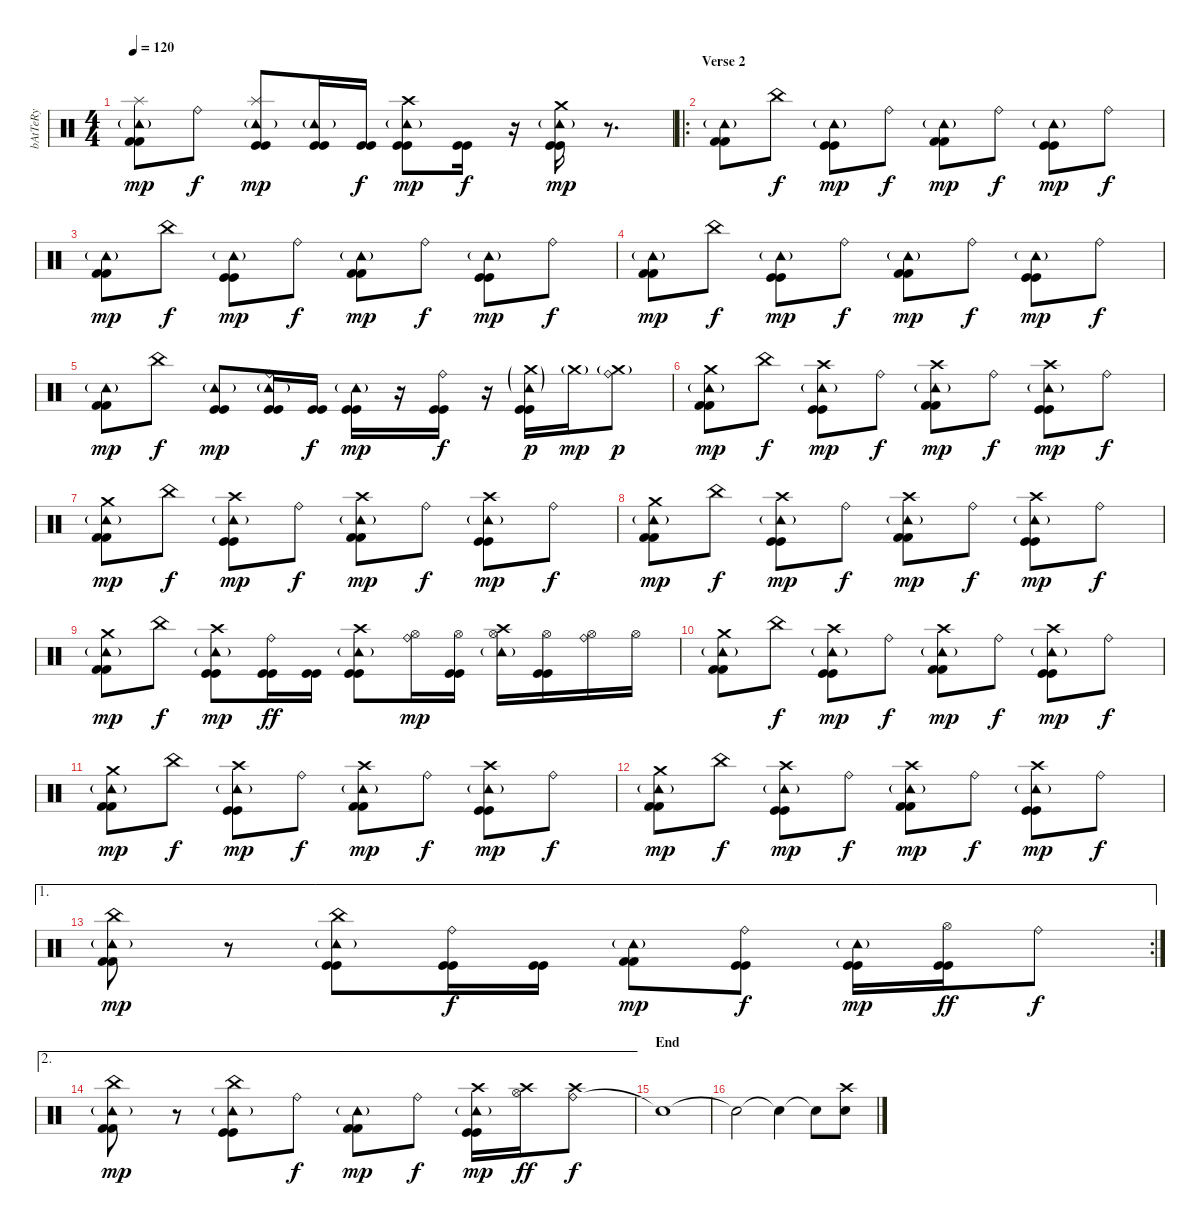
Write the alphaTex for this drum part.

\track ("bAtTeRy" "bAtTeRy") {instrument percussion}
\staff {score}
\articulation defaults
\ts (4 4)
\tempo 120
\clef neutral
\ks c
("Tambourine (hit)"{g} "Splash (hit)" "Kick (hit) 2" "Kick (hit) 2").8{dy mp} "Ride (bell)".8{dy f} ("Tambourine (hit)"{g} "Splash (hit)" "Kick (hit)" "Kick (hit)").8{dy mp} ("Tambourine (hit)"{g} "Kick (hit)" "Kick (hit)").16 ("Kick (hit)" "Kick (hit)").16{dy f} ("Tambourine (hit)"{g} "Crash high (hit)" "Kick (hit)" "Kick (hit)").8{dy mp} ("Kick (hit)" "Kick (hit)").16{dy f} r.16 ("Tambourine (hit)"{g} "Crash medium (hit)" "Kick (hit)" "Kick (hit)").16{dy mp} r.8{d} |
\ro
\section ("" "Verse 2")
("Tambourine (hit)"{g} "Kick (hit) 2" "Kick (hit) 2").8 "China (hit)".8{dy f} ("Tambourine (hit)"{g} "Kick (hit)" "Kick (hit)").8{dy mp} "Ride (bell)".8{dy f} ("Tambourine (hit)"{g} "Kick (hit) 2" "Kick (hit) 2").8{dy mp} "Ride (bell)".8{dy f} ("Tambourine (hit)"{g} "Kick (hit)" "Kick (hit)").8{dy mp} "Ride (bell)".8{dy f} |
("Tambourine (hit)"{g} "Kick (hit) 2" "Kick (hit) 2").8{dy mp} "China (hit)".8{dy f} ("Tambourine (hit)"{g} "Kick (hit)" "Kick (hit)").8{dy mp} "Ride (bell)".8{dy f} ("Tambourine (hit)"{g} "Kick (hit) 2" "Kick (hit) 2").8{dy mp} "Ride (bell)".8{dy f} ("Tambourine (hit)"{g} "Kick (hit)" "Kick (hit)").8{dy mp} "Ride (bell)".8{dy f} |
("Tambourine (hit)"{g} "Kick (hit) 2" "Kick (hit) 2").8{dy mp} "China (hit)".8{dy f} ("Tambourine (hit)"{g} "Kick (hit)" "Kick (hit)").8{dy mp} "Ride (bell)".8{dy f} ("Tambourine (hit)"{g} "Kick (hit) 2" "Kick (hit) 2").8{dy mp} "Ride (bell)".8{dy f} ("Tambourine (hit)"{g} "Kick (hit)" "Kick (hit)").8{dy mp} "Ride (bell)".8{dy f} |
("Tambourine (hit)"{g} "Kick (hit) 2" "Kick (hit) 2").8{dy mp} "China (hit)".8{dy f} ("Tambourine (hit)"{g} "Kick (hit)" "Kick (hit)").8{dy mp} ("Tambourine (hit)"{g} "Ride (bell)" "Kick (hit)" "Kick (hit)").16 ("Kick (hit)" "Kick (hit)").16{dy f} ("Tambourine (hit)"{g} "Kick (hit)" "Kick (hit)").16{dy mp} r.16 ("Ride (bell)" "Kick (hit)" "Kick (hit)").16{dy f} r.16 ("Tambourine (hit)"{g} "Crash medium (hit)"{g} "Kick (hit)" "Kick (hit)").16{dy p} "Crash medium (hit)"{g}.16{dy mp} ("Ride (bell)" "Crash medium (hit)"{g}).8{dy p} |
("Tambourine (hit)"{g} "Crash medium (hit)" "Kick (hit) 2" "Kick (hit) 2").8{dy mp} "China (hit)".8{dy f} ("Tambourine (hit)"{g} "Crash high (hit)" "Kick (hit)" "Kick (hit)").8{dy mp} "Ride (bell)".8{dy f} ("Tambourine (hit)"{g} "Crash high (hit)" "Kick (hit) 2" "Kick (hit) 2").8{dy mp} "Ride (bell)".8{dy f} ("Tambourine (hit)"{g} "Crash high (hit)" "Kick (hit)" "Kick (hit)").8{dy mp} "Ride (bell)".8{dy f} |
("Tambourine (hit)"{g} "Crash medium (hit)" "Kick (hit) 2" "Kick (hit) 2").8{dy mp} "China (hit)".8{dy f} ("Tambourine (hit)"{g} "Crash high (hit)" "Kick (hit)" "Kick (hit)").8{dy mp} "Ride (bell)".8{dy f} ("Tambourine (hit)"{g} "Crash high (hit)" "Kick (hit) 2" "Kick (hit) 2").8{dy mp} "Ride (bell)".8{dy f} ("Tambourine (hit)"{g} "Crash high (hit)" "Kick (hit)" "Kick (hit)").8{dy mp} "Ride (bell)".8{dy f} |
("Tambourine (hit)"{g} "Crash medium (hit)" "Kick (hit) 2" "Kick (hit) 2").8{dy mp} "China (hit)".8{dy f} ("Tambourine (hit)"{g} "Crash high (hit)" "Kick (hit)" "Kick (hit)").8{dy mp} "Ride (bell)".8{dy f} ("Tambourine (hit)"{g} "Crash high (hit)" "Kick (hit) 2" "Kick (hit) 2").8{dy mp} "Ride (bell)".8{dy f} ("Tambourine (hit)"{g} "Crash high (hit)" "Kick (hit)" "Kick (hit)").8{dy mp} "Ride (bell)".8{dy f} |
("Tambourine (hit)"{g} "Crash medium (hit)" "Kick (hit) 2" "Kick (hit) 2").8{dy mp} "China (hit)".8{dy f} ("Tambourine (hit)"{g} "Crash high (hit)" "Kick (hit)" "Kick (hit)").8{dy mp} ("Ride (bell)" "Kick (hit)" "Kick (hit)").16{dy ff} ("Kick (hit)" "Kick (hit)").16 ("Tambourine (hit)"{g} "Crash high (hit)" "Kick (hit)" "Kick (hit)").8 ("Ride (bell)" "Hi-Hat (open)").16{dy mp} ("Kick (hit)" "Kick (hit)" "Hi-Hat (open)").16 ("Tambourine (hit)"{g} "Crash high (hit)" "Hi-Hat (open)").16 ("Kick (hit)" "Kick (hit)" "Hi-Hat (open)").16 ("Ride (bell)" "Hi-Hat (open)").16 "Hi-Hat (open)".16 |
("Tambourine (hit)"{g} "Crash medium (hit)" "Kick (hit) 2" "Kick (hit) 2").8 "China (hit)".8{dy f} ("Tambourine (hit)"{g} "Crash high (hit)" "Kick (hit)" "Kick (hit)").8{dy mp} "Ride (bell)".8{dy f} ("Tambourine (hit)"{g} "Crash high (hit)" "Kick (hit) 2" "Kick (hit) 2").8{dy mp} "Ride (bell)".8{dy f} ("Tambourine (hit)"{g} "Crash high (hit)" "Kick (hit)" "Kick (hit)").8{dy mp} "Ride (bell)".8{dy f} |
("Tambourine (hit)"{g} "Crash medium (hit)" "Kick (hit) 2" "Kick (hit) 2").8{dy mp} "China (hit)".8{dy f} ("Tambourine (hit)"{g} "Crash high (hit)" "Kick (hit)" "Kick (hit)").8{dy mp} "Ride (bell)".8{dy f} ("Tambourine (hit)"{g} "Crash high (hit)" "Kick (hit) 2" "Kick (hit) 2").8{dy mp} "Ride (bell)".8{dy f} ("Tambourine (hit)"{g} "Crash high (hit)" "Kick (hit)" "Kick (hit)").8{dy mp} "Ride (bell)".8{dy f} |
("Tambourine (hit)"{g} "Crash medium (hit)" "Kick (hit) 2" "Kick (hit) 2").8{dy mp} "China (hit)".8{dy f} ("Tambourine (hit)"{g} "Crash high (hit)" "Kick (hit)" "Kick (hit)").8{dy mp} "Ride (bell)".8{dy f} ("Tambourine (hit)"{g} "Crash high (hit)" "Kick (hit) 2" "Kick (hit) 2").8{dy mp} "Ride (bell)".8{dy f} ("Tambourine (hit)"{g} "Crash high (hit)" "Kick (hit)" "Kick (hit)").8{dy mp} "Ride (bell)".8{dy f} |
\ae 1
\rc 2
("Tambourine (hit)"{g} "China (hit)" "Kick (hit) 2" "Kick (hit) 2").8{dy mp} r.8 ("Tambourine (hit)"{g} "China (hit)" "Kick (hit)" "Kick (hit)").8 ("Ride (bell)" "Kick (hit)" "Kick (hit)").16{dy f} ("Kick (hit)" "Kick (hit)").16 ("Tambourine (hit)"{g} "Kick (hit) 2" "Kick (hit) 2").8{dy mp} ("Ride (bell)" "Kick (hit)" "Kick (hit)").8{dy f} ("Tambourine (hit)"{g} "Kick (hit)" "Kick (hit)").16{dy mp} ("Hi-Hat (open)" "Kick (hit)" "Kick (hit)").16{dy ff} "Ride (bell)".8{dy f} |
\ae 2
("Tambourine (hit)"{g} "China (hit)" "Kick (hit) 2" "Kick (hit) 2").8{dy mp} r.8 ("Tambourine (hit)"{g} "China (hit)" "Kick (hit)" "Kick (hit)").8 "Ride (bell)".8{dy f} ("Tambourine (hit)"{g} "Kick (hit) 2" "Kick (hit) 2").8{dy mp} "Ride (bell)".8{dy f} ("Tambourine (hit)"{g} "Crash high (hit)" "Kick (hit)" "Kick (hit)").16{dy mp} ("Hi-Hat (open)" "Crash high (hit)").16{dy ff} ("Ride (bell)" "Crash high (hit)").8{dy f} |
\section ("" "End")
"Snare (hit)"{t}.1 |
"Snare (hit)"{t}.2 "Snare (hit)"{t}.4 "Snare (hit)"{t}.8 ("Crash high (hit)" "Electric Snare (hit)").8
